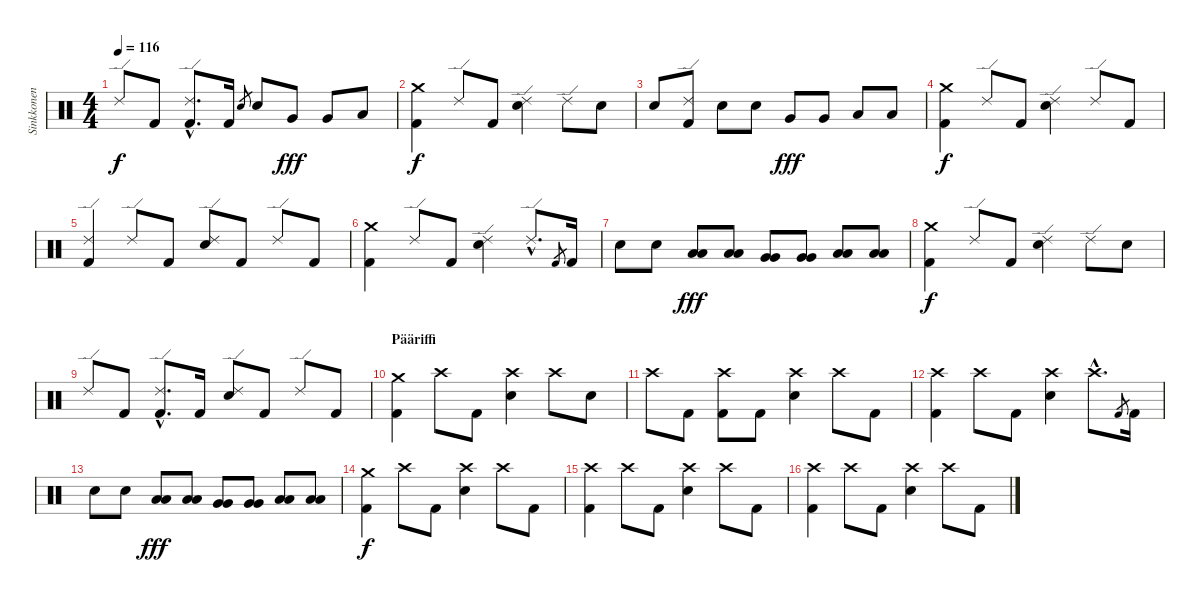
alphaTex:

\track ("Sinkkonen" "Sinkkonen") {instrument percussion}
\staff {score}
\articulation defaults
\ts (4 4)
\tempo 116
\clef neutral
\ks c "Ride (edge) 2".8{dy f} "Kick (hit) 2".8
("Kick (hit) 2"{hac} "Ride (edge) 2"{hac}).8{d} "Kick (hit) 2".16 "Snare (hit) 2".8{gr} "Snare (hit) 2".8 "Very Low Tom (hit)".8{dy fff} "Very Low Tom (hit)".8 "Low Floor Tom (hit)".8 |
("Kick (hit) 2" "Crash medium (hit)").4{dy f} "Ride (edge) 2".8 "Kick (hit) 2".8 ("Ride (edge) 2" "Snare (hit) 2").4 "Ride (edge) 2".8 "Snare (hit) 2".8 |
"Snare (hit) 2".8 ("Kick (hit) 2" "Ride (edge) 2").8 "Snare (hit) 2".8 "Snare (hit) 2".8 "Very Low Tom (hit)".8{dy fff} "Very Low Tom (hit)".8 "Low Floor Tom (hit)".8 "Low Floor Tom (hit)".8 |
("Kick (hit) 2" "Crash medium (hit)").4{dy f} "Ride (edge) 2".8 "Kick (hit) 2".8 ("Ride (edge) 2" "Snare (hit) 2").4 "Ride (edge) 2".8 "Kick (hit) 2".8 |
("Kick (hit) 2" "Ride (edge) 2").4 "Ride (edge) 2".8 "Kick (hit) 2".8 ("Ride (edge) 2" "Snare (hit) 2").8 "Kick (hit) 2".8 "Ride (edge) 2".8 "Kick (hit) 2".8 |
("Kick (hit) 2" "Crash medium (hit)").4 "Ride (edge) 2".8 "Kick (hit) 2".8 ("Ride (edge) 2" "Snare (hit) 2").4 "Ride (edge) 2"{hac}.8{d} "Kick (hit) 2".8{gr} "Kick (hit) 2".16 |
"Snare (hit) 2".8 "Snare (hit) 2".8 ("Low Tom (hit)" "Low Tom (hit)").8{dy fff} ("Low Tom (hit)" "Low Tom (hit)").8 ("Very Low Tom (hit)" "Very Low Tom (hit)").8 ("Very Low Tom (hit)" "Very Low Tom (hit)").8 ("Low Floor Tom (hit)" "Low Floor Tom (hit)").8 ("Low Floor Tom (hit)" "Low Floor Tom (hit)").8 |
("Kick (hit) 2" "Crash medium (hit)").4{dy f} "Ride (edge) 2".8 "Kick (hit) 2".8 ("Ride (edge) 2" "Snare (hit) 2").4 "Ride (edge) 2".8 "Snare (hit) 2".8 |
"Ride (edge) 2".8 "Kick (hit) 2".8 ("Kick (hit) 2"{hac} "Ride (edge) 2"{hac}).8{d} "Kick (hit) 2".16 ("Ride (edge) 2" "Snare (hit) 2").8 "Kick (hit) 2".8 "Ride (edge) 2".8 "Kick (hit) 2".8 |
\section ("" "Pääriffi")
("Kick (hit) 2" "Crash medium (hit)").4 "Crash high (hit)".8 "Kick (hit) 2".8 ("Crash high (hit)" "Snare (hit) 2").4 "Crash high (hit)".8 "Snare (hit) 2".8 |
"Crash high (hit)".8 "Kick (hit) 2".8 ("Kick (hit) 2" "Crash high (hit)").8 "Kick (hit) 2".8 ("Crash high (hit)" "Snare (hit) 2").4 "Crash high (hit)".8 "Kick (hit) 2".8 |
("Kick (hit) 2" "Crash high (hit)").4 "Crash high (hit)".8 "Kick (hit) 2".8 ("Crash high (hit)" "Snare (hit) 2").4 "Crash high (hit)"{hac}.8{d} "Kick (hit) 2".8{gr} "Kick (hit) 2".16 |
"Snare (hit) 2".8 "Snare (hit) 2".8 ("Low Tom (hit)" "Low Tom (hit)").8{dy fff} ("Low Tom (hit)" "Low Tom (hit)").8 ("Very Low Tom (hit)" "Very Low Tom (hit)").8 ("Very Low Tom (hit)" "Very Low Tom (hit)").8 ("Low Floor Tom (hit)" "Low Floor Tom (hit)").8 ("Low Floor Tom (hit)" "Low Floor Tom (hit)").8 |
("Kick (hit) 2" "Crash medium (hit)").4{dy f} "Crash high (hit)".8 "Kick (hit) 2".8 ("Crash high (hit)" "Snare (hit) 2").4 "Crash high (hit)".8 "Kick (hit) 2".8 |
("Kick (hit) 2" "Crash high (hit)").4 "Crash high (hit)".8 "Kick (hit) 2".8 ("Crash high (hit)" "Snare (hit) 2").4 "Crash high (hit)".8 "Kick (hit) 2".8 |
("Kick (hit) 2" "Crash high (hit)").4 "Crash high (hit)".8 "Kick (hit) 2".8 ("Crash high (hit)" "Snare (hit) 2").4 "Crash high (hit)".8 "Kick (hit) 2".8
